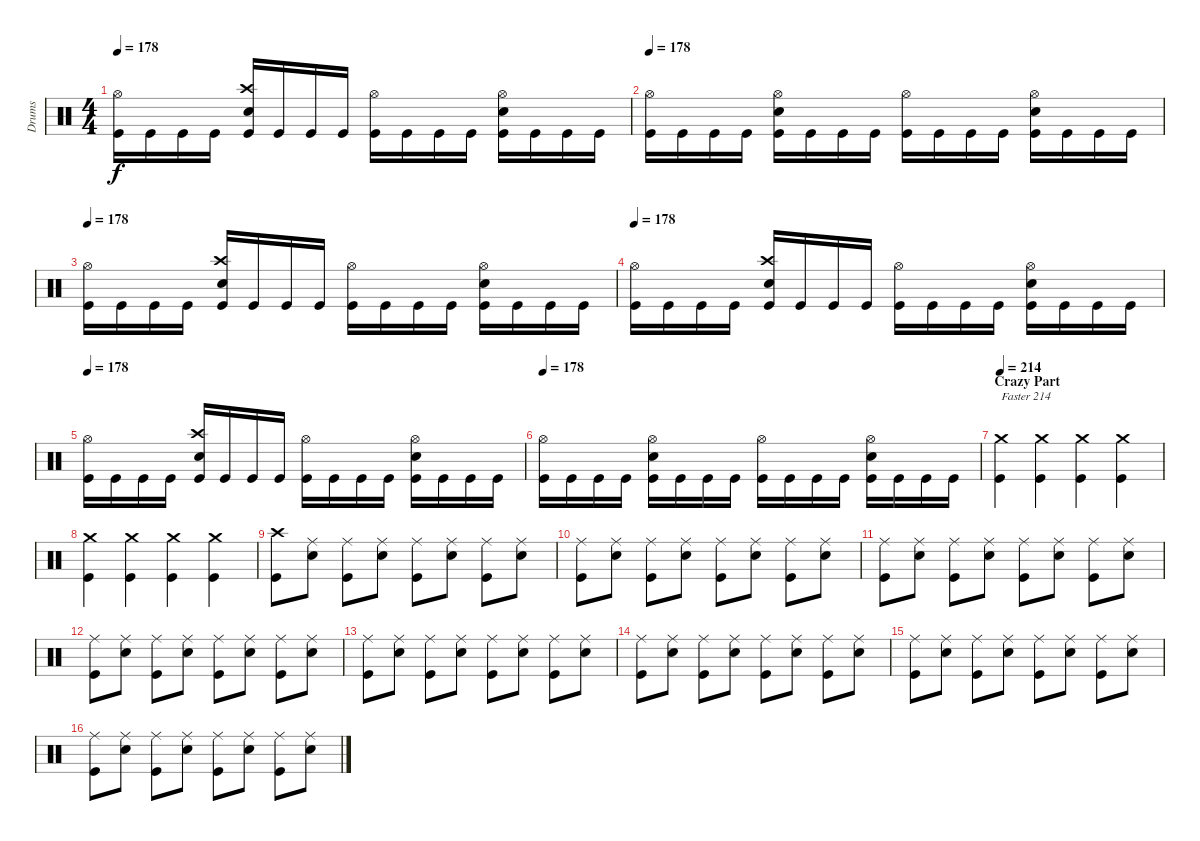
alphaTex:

\track ("Drums" "Drums") {instrument percussion}
\staff {score}
\articulation defaults
\ts (4 4)
\tempo 178
\clef neutral
\ks c
("Hi-Hat (open)" "Kick (hit)").16{dy f} "Kick (hit)".16 "Kick (hit)".16 "Kick (hit)".16 ("Crash high (hit)" "Snare (hit) 2" "Kick (hit)").16 "Kick (hit)".16 "Kick (hit)".16 "Kick (hit)".16 ("Hi-Hat (open)" "Kick (hit)").16 "Kick (hit)".16 "Kick (hit)".16 "Kick (hit)".16 ("Hi-Hat (open)" "Snare (hit) 2" "Kick (hit)").16 "Kick (hit)".16 "Kick (hit)".16 "Kick (hit)".16 |
\tempo 178
("Hi-Hat (open)" "Kick (hit)").16 "Kick (hit)".16 "Kick (hit)".16 "Kick (hit)".16 ("Hi-Hat (open)" "Snare (hit) 2" "Kick (hit)").16 "Kick (hit)".16 "Kick (hit)".16 "Kick (hit)".16 ("Hi-Hat (open)" "Kick (hit)").16 "Kick (hit)".16 "Kick (hit)".16 "Kick (hit)".16 ("Hi-Hat (open)" "Snare (hit) 2" "Kick (hit)").16 "Kick (hit)".16 "Kick (hit)".16 "Kick (hit)".16 |
\tempo 178
("Hi-Hat (open)" "Kick (hit)").16 "Kick (hit)".16 "Kick (hit)".16 "Kick (hit)".16 ("Crash high (hit)" "Snare (hit) 2" "Kick (hit)").16 "Kick (hit)".16 "Kick (hit)".16 "Kick (hit)".16 ("Hi-Hat (open)" "Kick (hit)").16 "Kick (hit)".16 "Kick (hit)".16 "Kick (hit)".16 ("Hi-Hat (open)" "Snare (hit) 2" "Kick (hit)").16 "Kick (hit)".16 "Kick (hit)".16 "Kick (hit)".16 |
\tempo 178
("Hi-Hat (open)" "Kick (hit)").16 "Kick (hit)".16 "Kick (hit)".16 "Kick (hit)".16 ("Crash high (hit)" "Snare (hit) 2" "Kick (hit)").16 "Kick (hit)".16 "Kick (hit)".16 "Kick (hit)".16 ("Hi-Hat (open)" "Kick (hit)").16 "Kick (hit)".16 "Kick (hit)".16 "Kick (hit)".16 ("Hi-Hat (open)" "Snare (hit) 2" "Kick (hit)").16 "Kick (hit)".16 "Kick (hit)".16 "Kick (hit)".16 |
\tempo 178
("Hi-Hat (open)" "Kick (hit)").16 "Kick (hit)".16 "Kick (hit)".16 "Kick (hit)".16 ("Crash high (hit)" "Snare (hit) 2" "Kick (hit)").16 "Kick (hit)".16 "Kick (hit)".16 "Kick (hit)".16 ("Hi-Hat (open)" "Kick (hit)").16 "Kick (hit)".16 "Kick (hit)".16 "Kick (hit)".16 ("Hi-Hat (open)" "Snare (hit) 2" "Kick (hit)").16 "Kick (hit)".16 "Kick (hit)".16 "Kick (hit)".16 |
\tempo 178
("Hi-Hat (open)" "Kick (hit)").16 "Kick (hit)".16 "Kick (hit)".16 "Kick (hit)".16 ("Hi-Hat (open)" "Snare (hit) 2" "Kick (hit)").16 "Kick (hit)".16 "Kick (hit)".16 "Kick (hit)".16 ("Hi-Hat (open)" "Kick (hit)").16 "Kick (hit)".16 "Kick (hit)".16 "Kick (hit)".16 ("Hi-Hat (open)" "Snare (hit) 2" "Kick (hit)").16 "Kick (hit)".16 "Kick (hit)".16 "Kick (hit)".16 |
\section ("" "Crazy Part")
\tempo 214
("Crash medium (hit)" "Kick (hit)").4{txt "Faster 214"} ("Crash medium (hit)" "Kick (hit)").4 ("Crash medium (hit)" "Kick (hit)").4 ("Crash medium (hit)" "Kick (hit)").4 |
("Crash medium (hit)" "Kick (hit)").4 ("Crash medium (hit)" "Kick (hit)").4 ("Crash medium (hit)" "Kick (hit)").4 ("Crash medium (hit)" "Kick (hit)").4 |
("Crash high (hit)" "Kick (hit)").8 ("Ride (middle)" "Snare (hit) 2").8 ("Ride (middle)" "Kick (hit)").8 ("Ride (middle)" "Snare (hit) 2").8 ("Ride (middle)" "Kick (hit)").8 ("Ride (middle)" "Snare (hit) 2").8 ("Ride (middle)" "Kick (hit)").8 ("Ride (middle)" "Snare (hit) 2").8 |
("Ride (middle)" "Kick (hit)").8 ("Ride (middle)" "Snare (hit) 2").8 ("Ride (middle)" "Kick (hit)").8 ("Ride (middle)" "Snare (hit) 2").8 ("Ride (middle)" "Kick (hit)").8 ("Ride (middle)" "Snare (hit) 2").8 ("Ride (middle)" "Kick (hit)").8 ("Ride (middle)" "Snare (hit) 2").8 |
("Ride (middle)" "Kick (hit)").8 ("Ride (middle)" "Snare (hit) 2").8 ("Ride (middle)" "Kick (hit)").8 ("Ride (middle)" "Snare (hit) 2").8 ("Ride (middle)" "Kick (hit)").8 ("Ride (middle)" "Snare (hit) 2").8 ("Ride (middle)" "Kick (hit)").8 ("Ride (middle)" "Snare (hit) 2").8 |
("Ride (middle)" "Kick (hit)").8 ("Ride (middle)" "Snare (hit) 2").8 ("Ride (middle)" "Kick (hit)").8 ("Ride (middle)" "Snare (hit) 2").8 ("Ride (middle)" "Kick (hit)").8 ("Ride (middle)" "Snare (hit) 2").8 ("Ride (middle)" "Kick (hit)").8 ("Ride (middle)" "Snare (hit) 2").8 |
("Ride (middle)" "Kick (hit)").8 ("Ride (middle)" "Snare (hit) 2").8 ("Ride (middle)" "Kick (hit)").8 ("Ride (middle)" "Snare (hit) 2").8 ("Ride (middle)" "Kick (hit)").8 ("Ride (middle)" "Snare (hit) 2").8 ("Ride (middle)" "Kick (hit)").8 ("Ride (middle)" "Snare (hit) 2").8 |
("Ride (middle)" "Kick (hit)").8 ("Ride (middle)" "Snare (hit) 2").8 ("Ride (middle)" "Kick (hit)").8 ("Ride (middle)" "Snare (hit) 2").8 ("Ride (middle)" "Kick (hit)").8 ("Ride (middle)" "Snare (hit) 2").8 ("Ride (middle)" "Kick (hit)").8 ("Ride (middle)" "Snare (hit) 2").8 |
("Ride (middle)" "Kick (hit)").8 ("Ride (middle)" "Snare (hit) 2").8 ("Ride (middle)" "Kick (hit)").8 ("Ride (middle)" "Snare (hit) 2").8 ("Ride (middle)" "Kick (hit)").8 ("Ride (middle)" "Snare (hit) 2").8 ("Ride (middle)" "Kick (hit)").8 ("Ride (middle)" "Snare (hit) 2").8 |
("Ride (middle)" "Kick (hit)").8 ("Ride (middle)" "Snare (hit) 2").8 ("Ride (middle)" "Kick (hit)").8 ("Ride (middle)" "Snare (hit) 2").8 ("Ride (middle)" "Kick (hit)").8 ("Ride (middle)" "Snare (hit) 2").8 ("Ride (middle)" "Kick (hit)").8 ("Ride (middle)" "Snare (hit) 2").8
